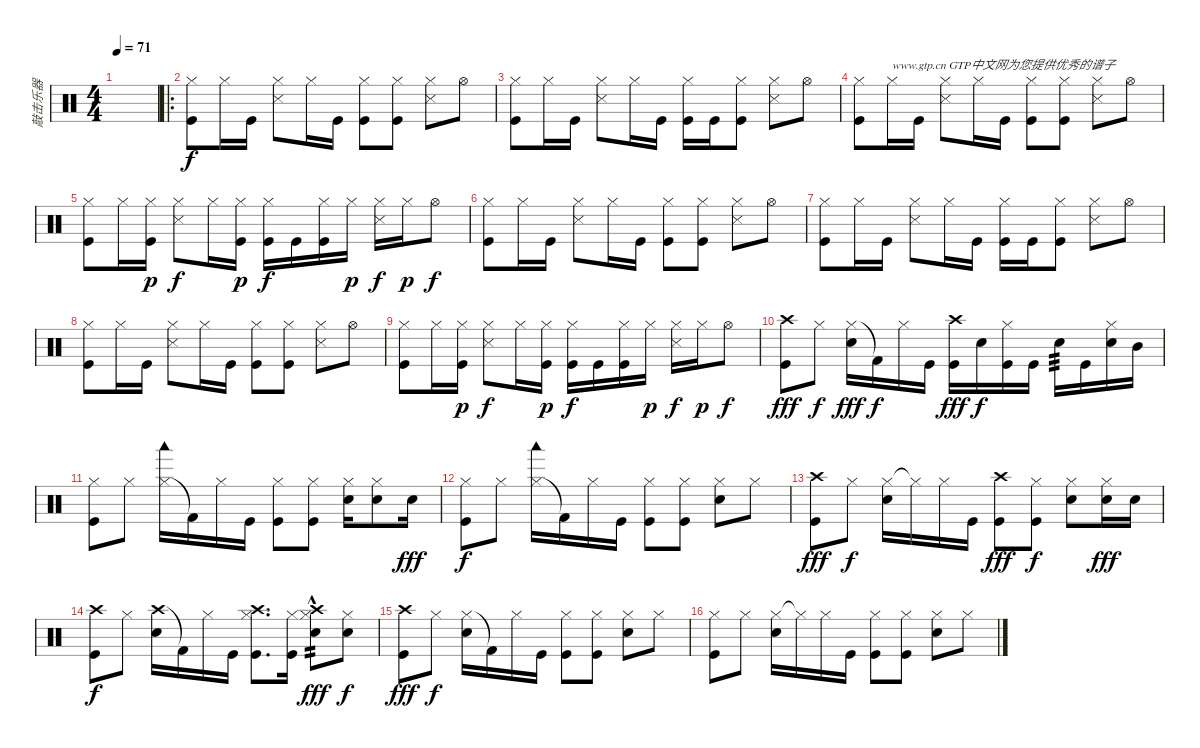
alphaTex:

\track ("敲击乐器" "敲击乐器") {instrument percussion}
\staff {score}
\articulation defaults
\ts (4 4)
\tempo 71
\clef neutral
\ks c
|
\ro
("Hi-Hat (closed)" "Kick (hit)").8 "Hi-Hat (closed)".16 "Kick (hit)".16 ("Hi-Hat (closed)" "Snare (side stick) 3").8 "Hi-Hat (closed)".16 "Kick (hit)".16 ("Hi-Hat (closed)" "Kick (hit)").8 ("Hi-Hat (closed)" "Kick (hit)").8 ("Hi-Hat (closed)" "Snare (side stick) 3").8 "Hi-Hat (open)".8 |
("Hi-Hat (closed)" "Kick (hit)").8 "Hi-Hat (closed)".16 "Kick (hit)".16 ("Hi-Hat (closed)" "Snare (side stick) 3").8 "Hi-Hat (closed)".16 "Kick (hit)".16 ("Hi-Hat (closed)" "Kick (hit)").16 "Kick (hit)".16 ("Hi-Hat (closed)" "Kick (hit)").8 ("Hi-Hat (closed)" "Snare (side stick) 3").8 "Hi-Hat (open)".8 |
("Hi-Hat (closed)" "Kick (hit)").8 "Hi-Hat (closed)".16{txt "www.gtp.cn GTP中文网为您提供优秀的谱子"} "Kick (hit)".16 ("Hi-Hat (closed)" "Snare (side stick) 3").8 "Hi-Hat (closed)".16 "Kick (hit)".16 ("Hi-Hat (closed)" "Kick (hit)").8 ("Hi-Hat (closed)" "Kick (hit)").8 ("Hi-Hat (closed)" "Snare (side stick) 3").8 "Hi-Hat (open)".8 |
("Hi-Hat (closed)" "Kick (hit)").8 "Hi-Hat (closed)".16 ("Hi-Hat (closed)" "Kick (hit)").16{dy p} ("Hi-Hat (closed)" "Snare (side stick) 3").8{dy f} "Hi-Hat (closed)".16 ("Hi-Hat (closed)" "Kick (hit)").16{dy p} ("Hi-Hat (closed)" "Kick (hit)").16{dy f} "Kick (hit)".16 ("Hi-Hat (closed)" "Kick (hit)").16 "Hi-Hat (closed)".16{dy p} ("Hi-Hat (closed)" "Snare (side stick) 3").16{dy f} "Hi-Hat (closed)".16{dy p} "Hi-Hat (open)".8{dy f} |
("Hi-Hat (closed)" "Kick (hit)").8 "Hi-Hat (closed)".16 "Kick (hit)".16 ("Hi-Hat (closed)" "Snare (side stick) 3").8 "Hi-Hat (closed)".16 "Kick (hit)".16 ("Hi-Hat (closed)" "Kick (hit)").8 ("Hi-Hat (closed)" "Kick (hit)").8 ("Hi-Hat (closed)" "Snare (side stick) 3").8 "Hi-Hat (open)".8 |
("Hi-Hat (closed)" "Kick (hit)").8 "Hi-Hat (closed)".16 "Kick (hit)".16 ("Hi-Hat (closed)" "Snare (side stick) 3").8 "Hi-Hat (closed)".16 "Kick (hit)".16 ("Hi-Hat (closed)" "Kick (hit)").16 "Kick (hit)".16 ("Hi-Hat (closed)" "Kick (hit)").8 ("Hi-Hat (closed)" "Snare (side stick) 3").8 "Hi-Hat (open)".8 |
("Hi-Hat (closed)" "Kick (hit)").8 "Hi-Hat (closed)".16 "Kick (hit)".16 ("Hi-Hat (closed)" "Snare (side stick) 3").8 "Hi-Hat (closed)".16 "Kick (hit)".16 ("Hi-Hat (closed)" "Kick (hit)").8 ("Hi-Hat (closed)" "Kick (hit)").8 ("Hi-Hat (closed)" "Snare (side stick) 3").8 "Hi-Hat (open)".8 |
("Hi-Hat (closed)" "Kick (hit)").8 "Hi-Hat (closed)".16 ("Hi-Hat (closed)" "Kick (hit)").16{dy p} ("Hi-Hat (closed)" "Snare (side stick) 3").8{dy f} "Hi-Hat (closed)".16 ("Hi-Hat (closed)" "Kick (hit)").16{dy p} ("Hi-Hat (closed)" "Kick (hit)").16{dy f} "Kick (hit)".16 ("Hi-Hat (closed)" "Kick (hit)").16 "Hi-Hat (closed)".16{dy p} ("Hi-Hat (closed)" "Snare (side stick) 3").16{dy f} "Hi-Hat (closed)".16{dy p} "Hi-Hat (open)".8{dy f} |
("Crash high (hit)" "Kick (hit)").8{dy fff} "Hi-Hat (closed)".8{dy f} ("Hi-Hat (closed)" "Electric Snare (hit)").16{dy fff} "Kick (hit) 2"{t}.16{dy f} "Hi-Hat (closed)".16 "Kick (hit)".16 ("Crash high (hit)" "Kick (hit)").16{dy fff} "Electric Snare (hit)".16{dy f} ("Hi-Hat (closed)" "Kick (hit)").16 "Kick (hit)".16 "Electric Snare (hit)".16{tp 3} "Kick (hit)".16 ("Hi-Hat (closed)" "Electric Snare (hit)").16 "Mid Tom (hit)".16 |
("Hi-Hat (closed)" "Kick (hit)").8 "Hi-Hat (closed)".8 ("Hi-Hat (closed)" "Woodblock low (hit)").16 "Kick (hit) 2"{t}.16 "Hi-Hat (closed)".16 "Kick (hit)".16 ("Hi-Hat (closed)" "Kick (hit)").8 ("Hi-Hat (closed)" "Kick (hit)").8 ("Hi-Hat (closed)" "Electric Snare (hit)").16 ("Hi-Hat (closed)" "Electric Snare (hit)").8 "Electric Snare (hit)".16{dy fff} |
("Hi-Hat (closed)" "Kick (hit)").8{dy f} "Hi-Hat (closed)".8 ("Hi-Hat (closed)" "Woodblock low (hit)").16 "Kick (hit) 2"{t}.16 "Hi-Hat (closed)".16 "Kick (hit)".16 ("Hi-Hat (closed)" "Kick (hit)").8 ("Hi-Hat (closed)" "Kick (hit)").8 ("Hi-Hat (closed)" "Electric Snare (hit)").8 "Hi-Hat (closed)".8 |
("Crash high (hit)" "Kick (hit)").8{dy fff} "Hi-Hat (closed)".8{dy f} ("Hi-Hat (closed)" "Electric Snare (hit)").16 "Hi-Hat (closed)"{t}.16 "Hi-Hat (closed)".16 "Kick (hit)".16 ("Crash high (hit)" "Kick (hit)").8{dy fff} ("Hi-Hat (closed)" "Kick (hit)").8{dy f} ("Hi-Hat (closed)" "Electric Snare (hit)").8 ("Electric Snare (hit)" "Hi-Hat (closed)").16{dy fff} "Electric Snare (hit)".16 |
("Crash high (hit)" "Kick (hit)").8{dy f} "Hi-Hat (closed)".8 ("Crash high (hit)" "Electric Snare (hit)").16 "Kick (hit) 2"{t}.16 "Hi-Hat (closed)".16 "Kick (hit)".16 ("Crash high (hit)" "Hi-Hat (closed)" "Kick (hit)").8{d} ("Hi-Hat (closed)" "Kick (hit)").16 ("Crash high (hit)" "Hi-Hat (closed)" "Electric Snare (hit)"{hac}).8{tp 2 dy fff} ("Hi-Hat (closed)" "Electric Snare (hit)").8{dy f} |
("Crash high (hit)" "Kick (hit)").8{dy fff} "Hi-Hat (closed)".8{dy f} ("Hi-Hat (closed)" "Electric Snare (hit)").16 "Kick (hit) 2"{t}.16 "Hi-Hat (closed)".16 "Kick (hit)".16 ("Hi-Hat (closed)" "Kick (hit)").8 ("Hi-Hat (closed)" "Kick (hit)").8 ("Hi-Hat (closed)" "Electric Snare (hit)").8 "Hi-Hat (closed)".8 |
("Hi-Hat (closed)" "Kick (hit)").8 "Hi-Hat (closed)".8 ("Hi-Hat (closed)" "Electric Snare (hit)").16 "Hi-Hat (closed)"{t}.16 "Hi-Hat (closed)".16 "Kick (hit)".16 ("Hi-Hat (closed)" "Kick (hit)").8 ("Hi-Hat (closed)" "Kick (hit)").8 ("Hi-Hat (closed)" "Electric Snare (hit)").8 "Hi-Hat (closed)".8
